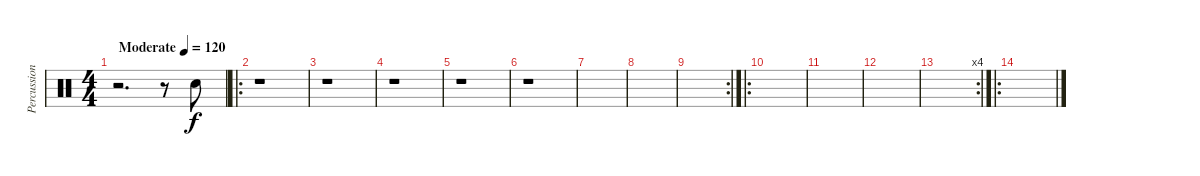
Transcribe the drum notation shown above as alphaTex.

\track ("Percussion" "Percussion") {instrument percussion}
\staff {score}
\articulation defaults
\ts (4 4)
\tempo (120 "Moderate")
\clef neutral
\ks c
r.2{d dy f} r.8 "Electric Snare (hit)".8 |
\ro
r.1 |
r.1 |
r.1 |
r.1 |
r.1 |
|
|
\rc 2
|
\ro
|
|
|
\rc 4
|
\ro
